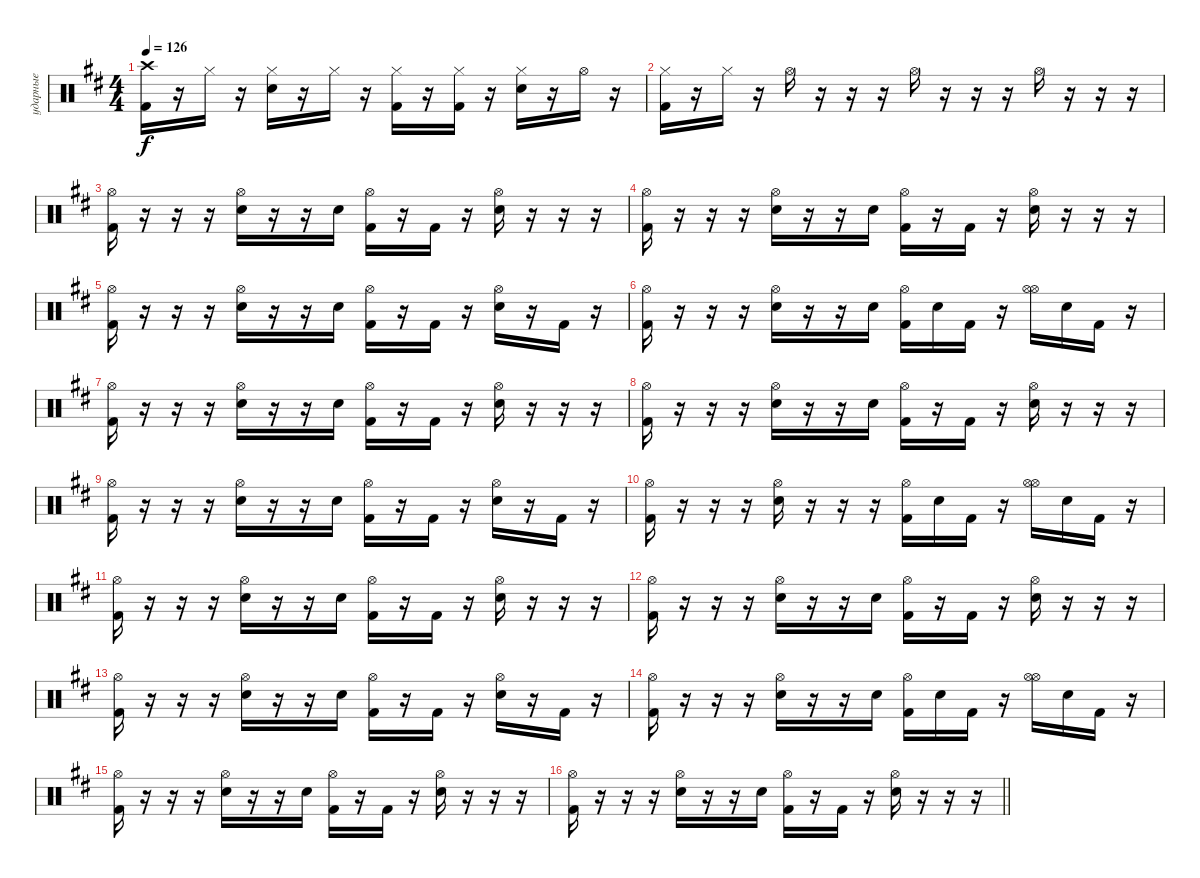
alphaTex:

\track ("ударные" "ударные") {instrument percussion}
\staff {score}
\articulation defaults
\ts (4 4)
\tempo 126
\clef neutral
\ks d
("Crash high (hit)" "Kick (hit) 2").16{dy f} r.16 "Hi-Hat (closed)".16 r.16 ("Hi-Hat (closed)" "Electric Snare (hit)").16 r.16 "Hi-Hat (closed)".16 r.16 ("Hi-Hat (closed)" "Kick (hit) 2").16 r.16 ("Hi-Hat (closed)" "Kick (hit) 2").16 r.16 ("Hi-Hat (closed)" "Electric Snare (hit)").16 r.16 "Hi-Hat (open)".16 r.16 |
("Hi-Hat (closed)" "Kick (hit) 2").16 r.16 "Hi-Hat (closed)".16 r.16 "Hi-Hat (open)".16 r.16 r.16 r.16 "Hi-Hat (open)".16 r.16 r.16 r.16 "Hi-Hat (open)".16 r.16 r.16 r.16 |
("Hi-Hat (open)" "Kick (hit) 2").16 r.16 r.16 r.16 ("Hi-Hat (open)" "Electric Snare (hit)").16 r.16 r.16 "Electric Snare (hit)".16 ("Hi-Hat (open)" "Kick (hit) 2").16 r.16 "Kick (hit) 2".16 r.16 ("Hi-Hat (open)" "Electric Snare (hit)").16 r.16 r.16 r.16 |
("Hi-Hat (open)" "Kick (hit) 2").16 r.16 r.16 r.16 ("Hi-Hat (open)" "Electric Snare (hit)").16 r.16 r.16 "Electric Snare (hit)".16 ("Hi-Hat (open)" "Kick (hit) 2").16 r.16 "Kick (hit) 2".16 r.16 ("Hi-Hat (open)" "Electric Snare (hit)").16 r.16 r.16 r.16 |
("Hi-Hat (open)" "Kick (hit) 2").16 r.16 r.16 r.16 ("Hi-Hat (open)" "Electric Snare (hit)").16 r.16 r.16 "Electric Snare (hit)".16 ("Hi-Hat (open)" "Kick (hit) 2").16 r.16 "Kick (hit) 2".16 r.16 ("Hi-Hat (open)" "Electric Snare (hit)").16 r.16 "Kick (hit) 2".16 r.16 |
("Hi-Hat (open)" "Kick (hit) 2").16 r.16 r.16 r.16 ("Hi-Hat (open)" "Electric Snare (hit)").16 r.16 r.16 "Electric Snare (hit)".16 ("Hi-Hat (open)" "Kick (hit) 2").16 "Electric Snare (hit)".16 "Kick (hit) 2".16 r.16 ("Hi-Hat (open)" "Hi-Hat (open)").16 "Electric Snare (hit)".16 "Kick (hit) 2".16 r.16 |
("Hi-Hat (open)" "Kick (hit) 2").16 r.16 r.16 r.16 ("Hi-Hat (open)" "Electric Snare (hit)").16 r.16 r.16 "Electric Snare (hit)".16 ("Hi-Hat (open)" "Kick (hit) 2").16 r.16 "Kick (hit) 2".16 r.16 ("Hi-Hat (open)" "Electric Snare (hit)").16 r.16 r.16 r.16 |
("Hi-Hat (open)" "Kick (hit) 2").16 r.16 r.16 r.16 ("Hi-Hat (open)" "Electric Snare (hit)").16 r.16 r.16 "Electric Snare (hit)".16 ("Hi-Hat (open)" "Kick (hit) 2").16 r.16 "Kick (hit) 2".16 r.16 ("Hi-Hat (open)" "Electric Snare (hit)").16 r.16 r.16 r.16 |
("Hi-Hat (open)" "Kick (hit) 2").16 r.16 r.16 r.16 ("Hi-Hat (open)" "Electric Snare (hit)").16 r.16 r.16 "Electric Snare (hit)".16 ("Hi-Hat (open)" "Kick (hit) 2").16 r.16 "Kick (hit) 2".16 r.16 ("Hi-Hat (open)" "Electric Snare (hit)").16 r.16 "Kick (hit) 2".16 r.16 |
("Hi-Hat (open)" "Kick (hit) 2").16 r.16 r.16 r.16 ("Hi-Hat (open)" "Electric Snare (hit)").16 r.16 r.16 r.16 ("Hi-Hat (open)" "Kick (hit) 2").16 "Electric Snare (hit)".16 "Kick (hit) 2".16 r.16 ("Hi-Hat (open)" "Hi-Hat (open)").16 "Electric Snare (hit)".16 "Kick (hit) 2".16 r.16 |
("Hi-Hat (open)" "Kick (hit) 2").16 r.16 r.16 r.16 ("Hi-Hat (open)" "Electric Snare (hit)").16 r.16 r.16 "Electric Snare (hit)".16 ("Hi-Hat (open)" "Kick (hit) 2").16 r.16 "Kick (hit) 2".16 r.16 ("Hi-Hat (open)" "Electric Snare (hit)").16 r.16 r.16 r.16 |
("Hi-Hat (open)" "Kick (hit) 2").16 r.16 r.16 r.16 ("Hi-Hat (open)" "Electric Snare (hit)").16 r.16 r.16 "Electric Snare (hit)".16 ("Hi-Hat (open)" "Kick (hit) 2").16 r.16 "Kick (hit) 2".16 r.16 ("Hi-Hat (open)" "Electric Snare (hit)").16 r.16 r.16 r.16 |
("Hi-Hat (open)" "Kick (hit) 2").16 r.16 r.16 r.16 ("Hi-Hat (open)" "Electric Snare (hit)").16 r.16 r.16 "Electric Snare (hit)".16 ("Hi-Hat (open)" "Kick (hit) 2").16 r.16 "Kick (hit) 2".16 r.16 ("Hi-Hat (open)" "Electric Snare (hit)").16 r.16 "Kick (hit) 2".16 r.16 |
("Hi-Hat (open)" "Kick (hit) 2").16 r.16 r.16 r.16 ("Hi-Hat (open)" "Electric Snare (hit)").16 r.16 r.16 "Electric Snare (hit)".16 ("Hi-Hat (open)" "Kick (hit) 2").16 "Electric Snare (hit)".16 "Kick (hit) 2".16 r.16 ("Hi-Hat (open)" "Hi-Hat (open)").16 "Electric Snare (hit)".16 "Kick (hit) 2".16 r.16 |
("Hi-Hat (open)" "Kick (hit) 2").16 r.16 r.16 r.16 ("Hi-Hat (open)" "Electric Snare (hit)").16 r.16 r.16 "Electric Snare (hit)".16 ("Hi-Hat (open)" "Kick (hit) 2").16 r.16 "Kick (hit) 2".16 r.16 ("Hi-Hat (open)" "Electric Snare (hit)").16 r.16 r.16 r.16 |
\barLineRight lightlight
("Hi-Hat (open)" "Kick (hit) 2").16 r.16 r.16 r.16 ("Hi-Hat (open)" "Electric Snare (hit)").16 r.16 r.16 "Electric Snare (hit)".16 ("Hi-Hat (open)" "Kick (hit) 2").16 r.16 "Kick (hit) 2".16 r.16 ("Hi-Hat (open)" "Electric Snare (hit)").16 r.16 r.16 r.16
